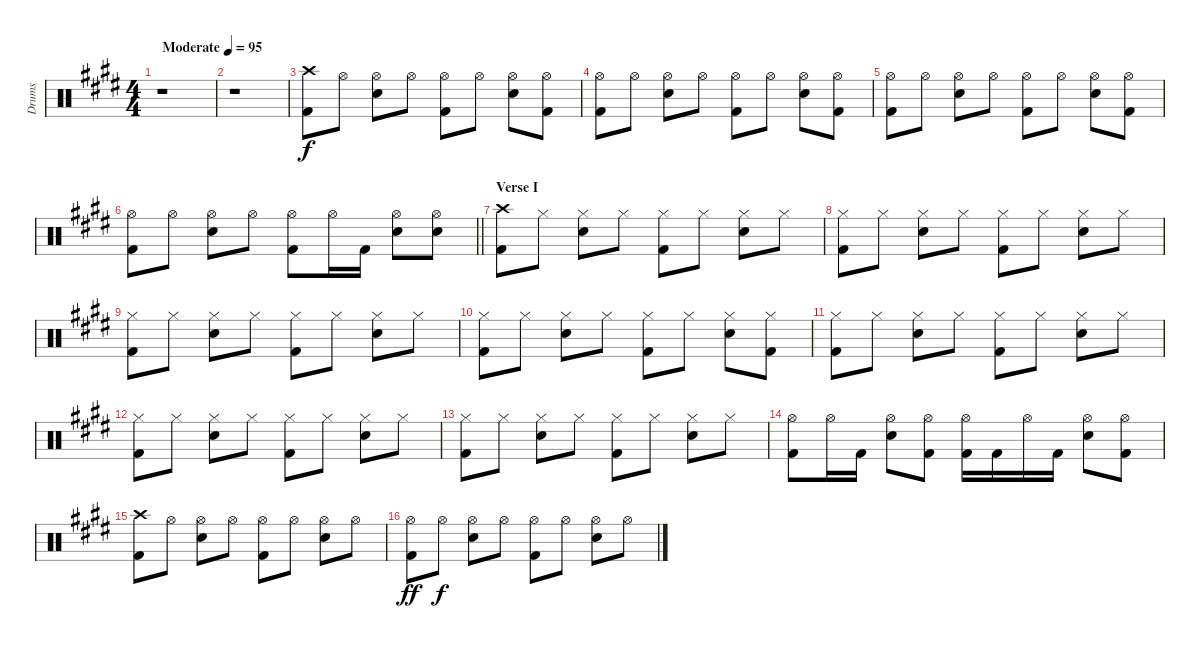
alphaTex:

\track ("Drums" "Drums") {instrument percussion}
\staff {score}
\articulation defaults
\ts (4 4)
\tempo (95 "Moderate")
\clef neutral
\ks e
r.1{dy f} |
r.1 |
("Crash high (hit)" "Kick (hit) 2").8 "Hi-Hat (open)".8 ("Hi-Hat (open)" "Snare (hit) 2").8 "Hi-Hat (open)".8 ("Hi-Hat (open)" "Kick (hit) 2").8 "Hi-Hat (open)".8 ("Hi-Hat (open)" "Snare (hit) 2").8 ("Hi-Hat (open)" "Kick (hit) 2").8 |
("Hi-Hat (open)" "Kick (hit) 2").8 "Hi-Hat (open)".8 ("Hi-Hat (open)" "Snare (hit) 2").8 "Hi-Hat (open)".8 ("Hi-Hat (open)" "Kick (hit) 2").8 "Hi-Hat (open)".8 ("Hi-Hat (open)" "Snare (hit) 2").8 ("Hi-Hat (open)" "Kick (hit) 2").8 |
("Hi-Hat (open)" "Kick (hit) 2").8 "Hi-Hat (open)".8 ("Hi-Hat (open)" "Snare (hit) 2").8 "Hi-Hat (open)".8 ("Hi-Hat (open)" "Kick (hit) 2").8 "Hi-Hat (open)".8 ("Hi-Hat (open)" "Snare (hit) 2").8 ("Hi-Hat (open)" "Kick (hit) 2").8 |
\barLineRight lightlight
("Hi-Hat (open)" "Kick (hit) 2").8 "Hi-Hat (open)".8 ("Hi-Hat (open)" "Snare (hit) 2").8 "Hi-Hat (open)".8 ("Hi-Hat (open)" "Kick (hit) 2").8 "Hi-Hat (open)".16 "Kick (hit) 2".16 ("Hi-Hat (open)" "Snare (hit) 2").8 ("Hi-Hat (open)" "Snare (hit) 2").8 |
\section ("" "Verse I")
("Crash high (hit)" "Kick (hit) 2").8 "Hi-Hat (closed)".8 ("Hi-Hat (closed)" "Snare (hit) 2").8 "Hi-Hat (closed)".8 ("Hi-Hat (closed)" "Kick (hit) 2").8 "Hi-Hat (closed)".8 ("Hi-Hat (closed)" "Snare (hit) 2").8 "Hi-Hat (closed)".8 |
("Hi-Hat (closed)" "Kick (hit) 2").8 "Hi-Hat (closed)".8 ("Hi-Hat (closed)" "Snare (hit) 2").8 "Hi-Hat (closed)".8 ("Hi-Hat (closed)" "Kick (hit) 2").8 "Hi-Hat (closed)".8 ("Hi-Hat (closed)" "Snare (hit) 2").8 "Hi-Hat (closed)".8 |
("Hi-Hat (closed)" "Kick (hit) 2").8 "Hi-Hat (closed)".8 ("Hi-Hat (closed)" "Snare (hit) 2").8 "Hi-Hat (closed)".8 ("Hi-Hat (closed)" "Kick (hit) 2").8 "Hi-Hat (closed)".8 ("Hi-Hat (closed)" "Snare (hit) 2").8 "Hi-Hat (closed)".8 |
("Hi-Hat (closed)" "Kick (hit) 2").8 "Hi-Hat (closed)".8 ("Hi-Hat (closed)" "Snare (hit) 2").8 "Hi-Hat (closed)".8 ("Hi-Hat (closed)" "Kick (hit) 2").8 "Hi-Hat (closed)".8 ("Hi-Hat (closed)" "Snare (hit) 2").8 ("Hi-Hat (closed)" "Kick (hit) 2").8 |
("Hi-Hat (closed)" "Kick (hit) 2").8 "Hi-Hat (closed)".8 ("Hi-Hat (closed)" "Snare (hit) 2").8 "Hi-Hat (closed)".8 ("Hi-Hat (closed)" "Kick (hit) 2").8 "Hi-Hat (closed)".8 ("Hi-Hat (closed)" "Snare (hit) 2").8 "Hi-Hat (closed)".8 |
("Hi-Hat (closed)" "Kick (hit) 2").8 "Hi-Hat (closed)".8 ("Hi-Hat (closed)" "Snare (hit) 2").8 "Hi-Hat (closed)".8 ("Hi-Hat (closed)" "Kick (hit) 2").8 "Hi-Hat (closed)".8 ("Hi-Hat (closed)" "Snare (hit) 2").8 "Hi-Hat (closed)".8 |
("Hi-Hat (closed)" "Kick (hit) 2").8 "Hi-Hat (closed)".8 ("Hi-Hat (closed)" "Snare (hit) 2").8 "Hi-Hat (closed)".8 ("Hi-Hat (closed)" "Kick (hit) 2").8 "Hi-Hat (closed)".8 ("Hi-Hat (closed)" "Snare (hit) 2").8 "Hi-Hat (closed)".8 |
("Hi-Hat (open)" "Kick (hit) 2").8 "Hi-Hat (open)".16 "Kick (hit) 2".16 ("Hi-Hat (open)" "Snare (hit) 2").8 ("Hi-Hat (open)" "Kick (hit) 2").8 ("Hi-Hat (open)" "Kick (hit) 2").16 "Kick (hit) 2".16 "Hi-Hat (open)".16 "Kick (hit) 2".16 ("Hi-Hat (open)" "Snare (hit) 2").8 ("Hi-Hat (open)" "Kick (hit) 2").8 |
("Crash high (hit)" "Kick (hit) 2").8 "Hi-Hat (open)".8 ("Hi-Hat (open)" "Snare (hit) 2").8 "Hi-Hat (open)".8 ("Hi-Hat (open)" "Kick (hit) 2").8 "Hi-Hat (open)".8 ("Hi-Hat (open)" "Snare (hit) 2").8 "Hi-Hat (open)".8 |
("Hi-Hat (open)" "Kick (hit) 2").8{dy ff} "Hi-Hat (open)".8{dy f} ("Hi-Hat (open)" "Snare (hit) 2").8 "Hi-Hat (open)".8 ("Hi-Hat (open)" "Kick (hit) 2").8 "Hi-Hat (open)".8 ("Hi-Hat (open)" "Snare (hit) 2").8 "Hi-Hat (open)".8
